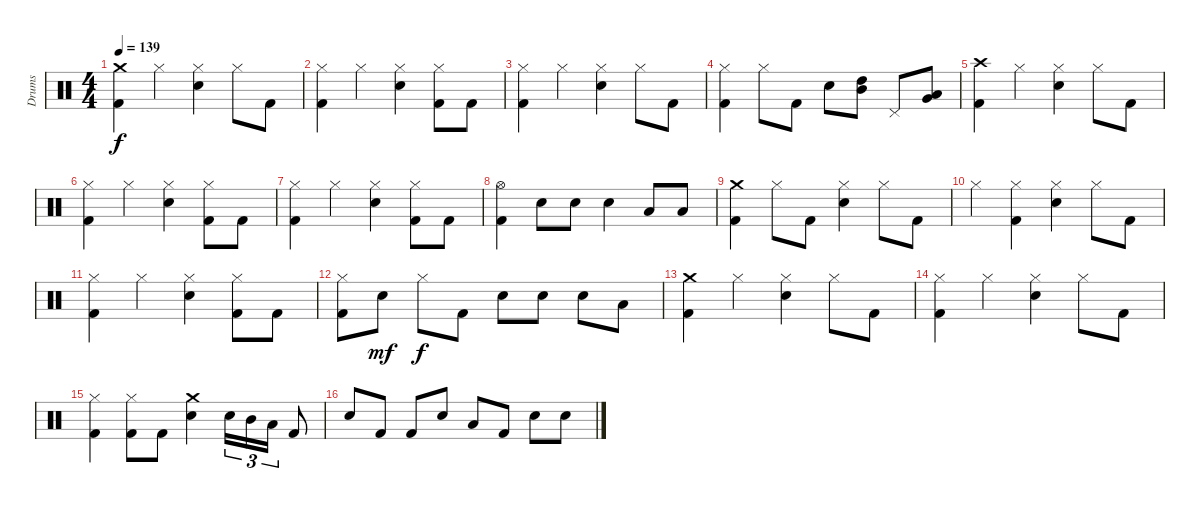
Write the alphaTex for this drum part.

\track ("Drums" "Drums") {instrument percussion}
\staff {score}
\articulation defaults
\ts (4 4)
\tempo 139
\clef neutral
\ks c
("Crash medium (hit)" "Kick (hit) 2").4{dy f} "Hi-Hat (closed)".4 ("Hi-Hat (closed)" "Snare (hit) 2").4 "Hi-Hat (closed)".8 "Kick (hit) 2".8 |
("Hi-Hat (closed)" "Kick (hit) 2").4 "Hi-Hat (closed)".4 ("Hi-Hat (closed)" "Snare (hit) 2").4 ("Hi-Hat (closed)" "Kick (hit) 2").8 "Kick (hit) 2".8 |
("Hi-Hat (closed)" "Kick (hit) 2").4 "Hi-Hat (closed)".4 ("Hi-Hat (closed)" "Snare (hit) 2").4 "Hi-Hat (closed)".8 "Kick (hit) 2".8 |
("Hi-Hat (closed)" "Kick (hit) 2").4 "Hi-Hat (closed)".8 "Kick (hit) 2".8 "Snare (hit) 2".8 ("Mid Tom (hit)" "High Tom (hit)").8 "Pedal Hi-Hat (hit)".8 ("Low Tom (hit)" "Very Low Tom (hit)").8 |
("Crash high (hit)" "Kick (hit) 2").4 "Hi-Hat (closed)".4 ("Hi-Hat (closed)" "Snare (hit) 2").4 "Hi-Hat (closed)".8 "Kick (hit) 2".8 |
("Hi-Hat (closed)" "Kick (hit) 2").4 "Hi-Hat (closed)".4 ("Hi-Hat (closed)" "Snare (hit) 2").4 ("Hi-Hat (closed)" "Kick (hit) 2").8 "Kick (hit) 2".8 |
("Hi-Hat (closed)" "Kick (hit) 2").4 "Hi-Hat (closed)".4 ("Hi-Hat (closed)" "Snare (hit) 2").4 ("Hi-Hat (closed)" "Kick (hit) 2").8 "Kick (hit) 2".8 |
("Hi-Hat (open)" "Kick (hit) 2").4 "Snare (hit) 2".8 "Snare (hit) 2".8 "Snare (hit) 2".4 "Low Tom (hit)".8 "Low Tom (hit)".8 |
("Crash medium (hit)" "Kick (hit) 2").4 "Hi-Hat (closed)".8 "Kick (hit) 2".8 ("Hi-Hat (closed)" "Snare (hit) 2").4 "Hi-Hat (closed)".8 "Kick (hit) 2".8 |
"Hi-Hat (closed)".4 ("Hi-Hat (closed)" "Kick (hit) 2").4 ("Hi-Hat (closed)" "Snare (hit) 2").4 "Hi-Hat (closed)".8 "Kick (hit) 2".8 |
("Hi-Hat (closed)" "Kick (hit) 2").4 "Hi-Hat (closed)".4 ("Hi-Hat (closed)" "Snare (hit) 2").4 ("Hi-Hat (closed)" "Kick (hit) 2").8 "Kick (hit) 2".8 |
("Hi-Hat (closed)" "Kick (hit) 2").8 "Snare (hit) 2".8{dy mf} "Hi-Hat (closed)".8{dy f} "Kick (hit) 2".8 "Snare (hit) 2".8 "Snare (hit) 2".8 "Snare (hit) 2".8 "Low Tom (hit)".8 |
("Crash medium (hit)" "Kick (hit) 2").4 "Hi-Hat (closed)".4 ("Hi-Hat (closed)" "Snare (hit) 2").4 "Hi-Hat (closed)".8 "Kick (hit) 2".8 |
("Hi-Hat (closed)" "Kick (hit) 2").4 "Hi-Hat (closed)".4 ("Hi-Hat (closed)" "Snare (hit) 2").4 "Hi-Hat (closed)".8 "Kick (hit) 2".8 |
("Hi-Hat (closed)" "Kick (hit) 2").4 ("Hi-Hat (closed)" "Kick (hit) 2").8 "Kick (hit) 2".8 ("Crash medium (hit)" "Snare (hit) 2").4 "Snare (hit) 2".16{tu (3 2)} "Mid Tom (hit)".16{tu (3 2)} "Low Tom (hit)".16{tu (3 2)} "Kick (hit) 2".8 |
"Snare (hit) 2".8 "Kick (hit) 2".8 "Kick (hit) 2".8 "Snare (hit) 2".8 "Low Tom (hit)".8 "Kick (hit) 2".8 "Snare (hit) 2".8 "Snare (hit) 2".8
